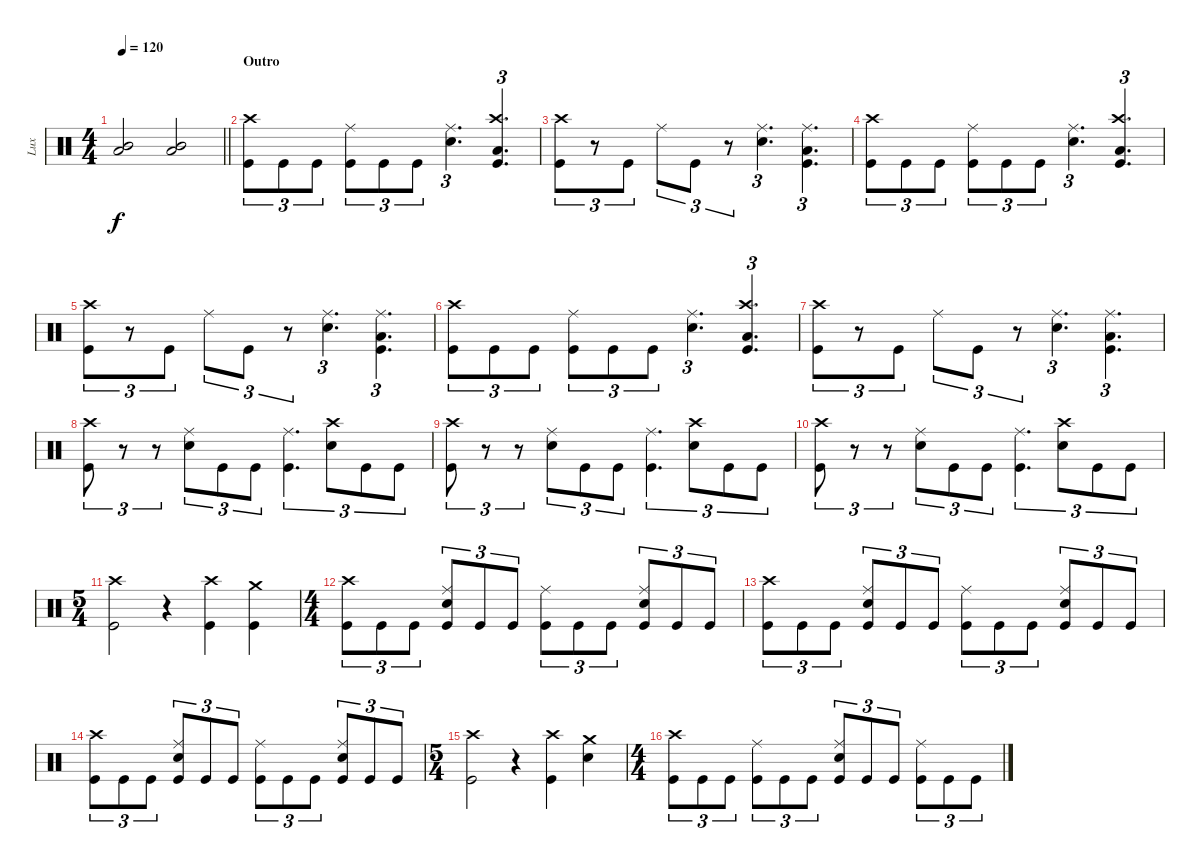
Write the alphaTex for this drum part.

\track ("Lux" "Lux") {instrument percussion}
\staff {score}
\articulation defaults
\ts (4 4)
\tempo 120
\clef neutral
\barLineRight lightlight
\ks c
("Mid Tom (hit)" "Low Tom (hit)").2{dy f} ("Mid Tom (hit)" "Low Tom (hit)").2 |
\section ("" "Outro")
("Crash high (hit)" "Kick (hit)").8{tu (3 2)} "Kick (hit)".8{tu (3 2)} "Kick (hit)".8{tu (3 2)} ("Ride (middle)" "Kick (hit)").8{tu (3 2)} "Kick (hit)".8{tu (3 2)} "Kick (hit)".8{tu (3 2)} ("Ride (middle)" "Snare (hit) 2").4{d tu (3 2)} ("Crash high (hit)" "Low Tom (hit)" "Kick (hit)").4{d tu (3 2)} |
("Crash high (hit)" "Kick (hit)").8{tu (3 2)} r.8{tu (3 2)} "Kick (hit)".8{tu (3 2)} "Ride (middle)".8{tu (3 2)} "Kick (hit)".8{tu (3 2)} r.8{tu (3 2)} ("Ride (middle)" "Snare (hit) 2").4{d tu (3 2)} ("Ride (middle)" "Low Tom (hit)" "Kick (hit)").4{d tu (3 2)} |
("Crash high (hit)" "Kick (hit)").8{tu (3 2)} "Kick (hit)".8{tu (3 2)} "Kick (hit)".8{tu (3 2)} ("Ride (middle)" "Kick (hit)").8{tu (3 2)} "Kick (hit)".8{tu (3 2)} "Kick (hit)".8{tu (3 2)} ("Ride (middle)" "Snare (hit) 2").4{d tu (3 2)} ("Crash high (hit)" "Low Tom (hit)" "Kick (hit)").4{d tu (3 2)} |
("Crash high (hit)" "Kick (hit)").8{tu (3 2)} r.8{tu (3 2)} "Kick (hit)".8{tu (3 2)} "Ride (middle)".8{tu (3 2)} "Kick (hit)".8{tu (3 2)} r.8{tu (3 2)} ("Ride (middle)" "Snare (hit) 2").4{d tu (3 2)} ("Ride (middle)" "Low Tom (hit)" "Kick (hit)").4{d tu (3 2)} |
("Crash high (hit)" "Kick (hit)").8{tu (3 2)} "Kick (hit)".8{tu (3 2)} "Kick (hit)".8{tu (3 2)} ("Ride (middle)" "Kick (hit)").8{tu (3 2)} "Kick (hit)".8{tu (3 2)} "Kick (hit)".8{tu (3 2)} ("Ride (middle)" "Snare (hit) 2").4{d tu (3 2)} ("Crash high (hit)" "Low Tom (hit)" "Kick (hit)").4{d tu (3 2)} |
("Crash high (hit)" "Kick (hit)").8{tu (3 2)} r.8{tu (3 2)} "Kick (hit)".8{tu (3 2)} "Ride (middle)".8{tu (3 2)} "Kick (hit)".8{tu (3 2)} r.8{tu (3 2)} ("Ride (middle)" "Snare (hit) 2").4{d tu (3 2)} ("Ride (middle)" "Low Tom (hit)" "Kick (hit)").4{d tu (3 2)} |
("Crash high (hit)" "Kick (hit)").8{tu (3 2)} r.8{tu (3 2)} r.8{tu (3 2)} ("Ride (middle)" "Snare (hit) 2").8{tu (3 2)} "Kick (hit)".8{tu (3 2)} "Kick (hit)".8{tu (3 2)} ("Ride (middle)" "Kick (hit)").4{d tu (3 2)} ("Crash high (hit)" "Snare (hit) 2").8{tu (3 2)} "Kick (hit)".8{tu (3 2)} "Kick (hit)".8{tu (3 2)} |
("Crash high (hit)" "Kick (hit)").8{tu (3 2)} r.8{tu (3 2)} r.8{tu (3 2)} ("Ride (middle)" "Snare (hit) 2").8{tu (3 2)} "Kick (hit)".8{tu (3 2)} "Kick (hit)".8{tu (3 2)} ("Ride (middle)" "Kick (hit)").4{d tu (3 2)} ("Crash high (hit)" "Snare (hit) 2").8{tu (3 2)} "Kick (hit)".8{tu (3 2)} "Kick (hit)".8{tu (3 2)} |
("Crash high (hit)" "Kick (hit)").8{tu (3 2)} r.8{tu (3 2)} r.8{tu (3 2)} ("Ride (middle)" "Snare (hit) 2").8{tu (3 2)} "Kick (hit)".8{tu (3 2)} "Kick (hit)".8{tu (3 2)} ("Ride (middle)" "Kick (hit)").4{d tu (3 2)} ("Crash high (hit)" "Snare (hit) 2").8{tu (3 2)} "Kick (hit)".8{tu (3 2)} "Kick (hit)".8{tu (3 2)} |
\ts (5 4)
("Crash high (hit)" "Kick (hit)").2 r.4 ("Crash high (hit)" "Kick (hit)").4 ("Crash medium (hit)" "Kick (hit)").4 |
\ts (4 4)
("Crash high (hit)" "Kick (hit)").8{tu (3 2)} "Kick (hit)".8{tu (3 2)} "Kick (hit)".8{tu (3 2)} ("Ride (middle)" "Snare (hit) 2" "Kick (hit)").8{tu (3 2)} "Kick (hit)".8{tu (3 2)} "Kick (hit)".8{tu (3 2)} ("Ride (middle)" "Kick (hit)").8{tu (3 2)} "Kick (hit)".8{tu (3 2)} "Kick (hit)".8{tu (3 2)} ("Ride (middle)" "Snare (hit) 2" "Kick (hit)").8{tu (3 2)} "Kick (hit)".8{tu (3 2)} "Kick (hit)".8{tu (3 2)} |
("Crash high (hit)" "Kick (hit)").8{tu (3 2)} "Kick (hit)".8{tu (3 2)} "Kick (hit)".8{tu (3 2)} ("Ride (middle)" "Snare (hit) 2" "Kick (hit)").8{tu (3 2)} "Kick (hit)".8{tu (3 2)} "Kick (hit)".8{tu (3 2)} ("Ride (middle)" "Kick (hit)").8{tu (3 2)} "Kick (hit)".8{tu (3 2)} "Kick (hit)".8{tu (3 2)} ("Ride (middle)" "Snare (hit) 2" "Kick (hit)").8{tu (3 2)} "Kick (hit)".8{tu (3 2)} "Kick (hit)".8{tu (3 2)} |
("Crash high (hit)" "Kick (hit)").8{tu (3 2)} "Kick (hit)".8{tu (3 2)} "Kick (hit)".8{tu (3 2)} ("Ride (middle)" "Snare (hit) 2" "Kick (hit)").8{tu (3 2)} "Kick (hit)".8{tu (3 2)} "Kick (hit)".8{tu (3 2)} ("Ride (middle)" "Kick (hit)").8{tu (3 2)} "Kick (hit)".8{tu (3 2)} "Kick (hit)".8{tu (3 2)} ("Ride (middle)" "Snare (hit) 2" "Kick (hit)").8{tu (3 2)} "Kick (hit)".8{tu (3 2)} "Kick (hit)".8{tu (3 2)} |
\ts (5 4)
("Crash high (hit)" "Kick (hit)").2 r.4 ("Crash high (hit)" "Kick (hit)").4 ("Crash medium (hit)" "Snare (hit) 2").4 |
\ts (4 4)
("Crash high (hit)" "Kick (hit)").8{tu (3 2)} "Kick (hit)".8{tu (3 2)} "Kick (hit)".8{tu (3 2)} ("Ride (middle)" "Kick (hit)").8{tu (3 2)} "Kick (hit)".8{tu (3 2)} "Kick (hit)".8{tu (3 2)} ("Ride (middle)" "Snare (hit) 2" "Kick (hit)").8{tu (3 2)} "Kick (hit)".8{tu (3 2)} "Kick (hit)".8{tu (3 2)} ("Ride (middle)" "Kick (hit)").8{tu (3 2)} "Kick (hit)".8{tu (3 2)} "Kick (hit)".8{tu (3 2)}
